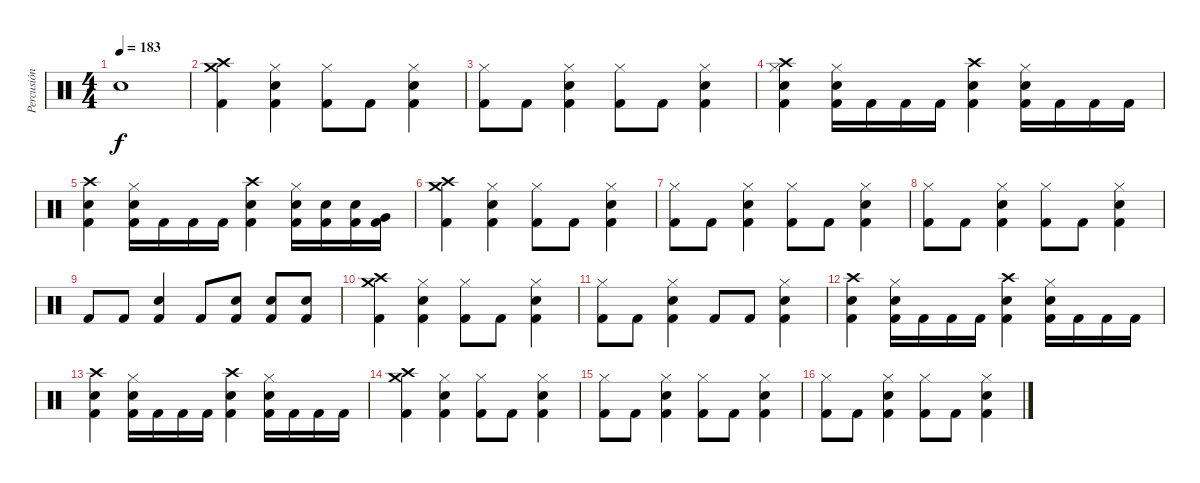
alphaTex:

\track ("Percusión" "Percusión") {instrument percussion}
\staff {score}
\articulation defaults
\ts (4 4)
\tempo 183
\clef neutral
\ks c "Electric Snare (hit)".1{dy f}
|
("Kick (hit) 2" "Crash medium (hit)" "Crash high (hit)").4 ("Kick (hit) 2" "Electric Snare (hit)" "Hi-Hat (closed)").4 ("Kick (hit) 2" "Hi-Hat (closed)").8 "Kick (hit) 2".8 ("Kick (hit) 2" "Electric Snare (hit)" "Hi-Hat (closed)").4 |
("Kick (hit) 2" "Hi-Hat (closed)").8 "Kick (hit) 2".8 ("Kick (hit) 2" "Electric Snare (hit)" "Hi-Hat (closed)").4 ("Kick (hit) 2" "Hi-Hat (closed)").8 "Kick (hit) 2".8 ("Kick (hit) 2" "Electric Snare (hit)" "Hi-Hat (closed)").4 |
("Kick (hit) 2" "Electric Snare (hit)" "Hi-Hat (closed)" "Crash high (hit)").4 ("Kick (hit) 2" "Electric Snare (hit)" "Hi-Hat (closed)").16 "Kick (hit) 2".16 "Kick (hit) 2".16 "Kick (hit) 2".16 ("Kick (hit) 2" "Electric Snare (hit)" "Crash high (hit)").4 ("Kick (hit) 2" "Electric Snare (hit)" "Hi-Hat (closed)").16 "Kick (hit) 2".16 "Kick (hit) 2".16 "Kick (hit) 2".16 |
("Kick (hit) 2" "Electric Snare (hit)" "Crash high (hit)").4 ("Kick (hit) 2" "Electric Snare (hit)" "Hi-Hat (closed)").16 "Kick (hit) 2".16 "Kick (hit) 2".16 "Kick (hit) 2".16 ("Kick (hit) 2" "Electric Snare (hit)" "Crash high (hit)").4 ("Kick (hit) 2" "Electric Snare (hit)" "Hi-Hat (closed)").16 ("Kick (hit) 2" "Electric Snare (hit)").16 ("Kick (hit) 2" "Electric Snare (hit)").16 ("Kick (hit) 2" "Very Low Tom (hit)").16 |
("Kick (hit) 2" "Crash medium (hit)" "Crash high (hit)").4 ("Kick (hit) 2" "Electric Snare (hit)" "Hi-Hat (closed)").4 ("Kick (hit) 2" "Hi-Hat (closed)").8 "Kick (hit) 2".8 ("Kick (hit) 2" "Electric Snare (hit)" "Hi-Hat (closed)").4 |
("Kick (hit) 2" "Hi-Hat (closed)").8 "Kick (hit) 2".8 ("Kick (hit) 2" "Electric Snare (hit)" "Hi-Hat (closed)").4 ("Kick (hit) 2" "Hi-Hat (closed)").8 "Kick (hit) 2".8 ("Kick (hit) 2" "Electric Snare (hit)" "Hi-Hat (closed)").4 |
("Kick (hit) 2" "Hi-Hat (closed)").8 "Kick (hit) 2".8 ("Kick (hit) 2" "Electric Snare (hit)" "Hi-Hat (closed)").4 ("Kick (hit) 2" "Hi-Hat (closed)").8 "Kick (hit) 2".8 ("Kick (hit) 2" "Electric Snare (hit)" "Hi-Hat (closed)").4 |
"Kick (hit) 2".8 "Kick (hit) 2".8 ("Kick (hit) 2" "Electric Snare (hit)").4 "Kick (hit) 2".8 ("Kick (hit) 2" "Electric Snare (hit)").8 ("Kick (hit) 2" "Electric Snare (hit)").8 ("Kick (hit) 2" "Electric Snare (hit)").8 |
("Kick (hit) 2" "Crash medium (hit)" "Crash high (hit)").4 ("Kick (hit) 2" "Electric Snare (hit)" "Hi-Hat (closed)").4 ("Kick (hit) 2" "Hi-Hat (closed)").8 "Kick (hit) 2".8 ("Kick (hit) 2" "Electric Snare (hit)" "Hi-Hat (closed)").4 |
("Kick (hit) 2" "Hi-Hat (closed)").8 "Kick (hit) 2".8 ("Kick (hit) 2" "Electric Snare (hit)" "Hi-Hat (closed)").4 "Kick (hit) 2".8 "Kick (hit) 2".8 ("Kick (hit) 2" "Electric Snare (hit)" "Hi-Hat (closed)").4 |
("Kick (hit) 2" "Electric Snare (hit)" "Crash high (hit)").4 ("Kick (hit) 2" "Electric Snare (hit)" "Hi-Hat (closed)").16 "Kick (hit) 2".16 "Kick (hit) 2".16 "Kick (hit) 2".16 ("Kick (hit) 2" "Electric Snare (hit)" "Crash high (hit)").4 ("Kick (hit) 2" "Electric Snare (hit)" "Hi-Hat (closed)").16 "Kick (hit) 2".16 "Kick (hit) 2".16 "Kick (hit) 2".16 |
("Kick (hit) 2" "Electric Snare (hit)" "Crash high (hit)").4 ("Kick (hit) 2" "Electric Snare (hit)" "Hi-Hat (closed)").16 "Kick (hit) 2".16 "Kick (hit) 2".16 "Kick (hit) 2".16 ("Kick (hit) 2" "Electric Snare (hit)" "Crash high (hit)").4 ("Kick (hit) 2" "Electric Snare (hit)" "Hi-Hat (closed)").16 "Kick (hit) 2".16 "Kick (hit) 2".16 "Kick (hit) 2".16 |
("Kick (hit) 2" "Crash medium (hit)" "Crash high (hit)").4 ("Kick (hit) 2" "Electric Snare (hit)" "Hi-Hat (closed)").4 ("Kick (hit) 2" "Hi-Hat (closed)").8 "Kick (hit) 2".8 ("Kick (hit) 2" "Electric Snare (hit)" "Hi-Hat (closed)").4 |
("Kick (hit) 2" "Hi-Hat (closed)").8 "Kick (hit) 2".8 ("Kick (hit) 2" "Electric Snare (hit)" "Hi-Hat (closed)").4 ("Kick (hit) 2" "Hi-Hat (closed)").8 "Kick (hit) 2".8 ("Kick (hit) 2" "Electric Snare (hit)" "Hi-Hat (closed)").4 |
("Kick (hit) 2" "Hi-Hat (closed)").8 "Kick (hit) 2".8 ("Kick (hit) 2" "Electric Snare (hit)" "Hi-Hat (closed)").4 ("Kick (hit) 2" "Hi-Hat (closed)").8 "Kick (hit) 2".8 ("Kick (hit) 2" "Electric Snare (hit)" "Hi-Hat (closed)").4
